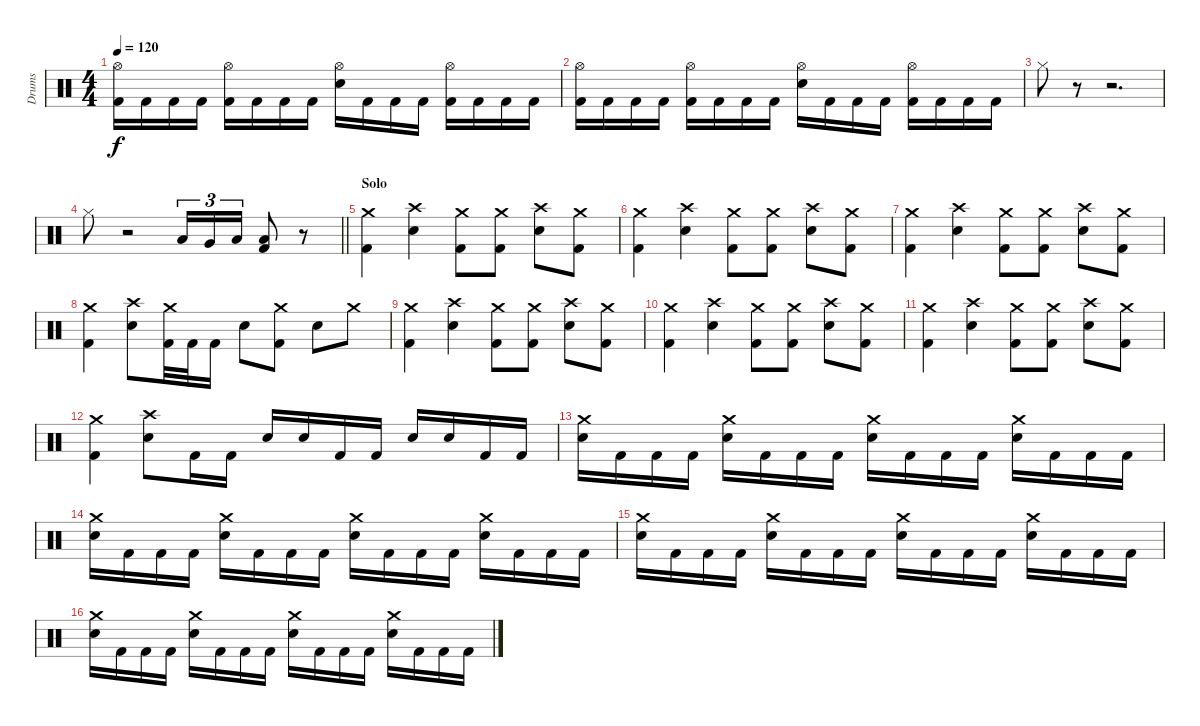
\track ("Drums" "Drums") {instrument percussion}
\staff {score}
\articulation defaults
\ts (4 4)
\tempo 120
\clef neutral
\ks c
("Hi-Hat (open)" "Kick (hit) 2").16{dy f} "Kick (hit) 2".16 "Kick (hit) 2".16 "Kick (hit) 2".16 ("Hi-Hat (open)" "Kick (hit) 2").16 "Kick (hit) 2".16 "Kick (hit) 2".16 "Kick (hit) 2".16 ("Hi-Hat (open)" "Snare (hit) 2").16 "Kick (hit) 2".16 "Kick (hit) 2".16 "Kick (hit) 2".16 ("Hi-Hat (open)" "Kick (hit) 2").16 "Kick (hit) 2".16 "Kick (hit) 2".16 "Kick (hit) 2".16 |
("Hi-Hat (open)" "Kick (hit) 2").16 "Kick (hit) 2".16 "Kick (hit) 2".16 "Kick (hit) 2".16 ("Hi-Hat (open)" "Kick (hit) 2").16 "Kick (hit) 2".16 "Kick (hit) 2".16 "Kick (hit) 2".16 ("Hi-Hat (open)" "Snare (hit) 2").16 "Kick (hit) 2".16 "Kick (hit) 2".16 "Kick (hit) 2".16 ("Hi-Hat (open)" "Kick (hit) 2").16 "Kick (hit) 2".16 "Kick (hit) 2".16 "Kick (hit) 2".16 |
"Hi-Hat (closed)".8 r.8 r.2{d} |
\barLineRight lightlight "Hi-Hat (closed)".8
r.2 "Low Tom (hit)".16{tu (3 2)} "Very Low Tom (hit)".16{tu (3 2)} "Low Floor Tom (hit)".16{tu (3 2)} ("Low Floor Tom (hit)" "Kick (hit) 2").8 r.8 |
\section ("" "Solo")
("Crash medium (hit)" "Kick (hit) 2").4 ("Crash high (hit)" "Snare (hit) 2").4 ("Crash medium (hit)" "Kick (hit) 2").8 ("Crash medium (hit)" "Kick (hit) 2").8 ("Crash high (hit)" "Snare (hit) 2").8 ("Crash medium (hit)" "Kick (hit) 2").8 |
("Crash medium (hit)" "Kick (hit) 2").4 ("Crash high (hit)" "Snare (hit) 2").4 ("Crash medium (hit)" "Kick (hit) 2").8 ("Crash medium (hit)" "Kick (hit) 2").8 ("Crash high (hit)" "Snare (hit) 2").8 ("Crash medium (hit)" "Kick (hit) 2").8 |
("Crash medium (hit)" "Kick (hit) 2").4 ("Crash high (hit)" "Snare (hit) 2").4 ("Crash medium (hit)" "Kick (hit) 2").8 ("Crash medium (hit)" "Kick (hit) 2").8 ("Crash high (hit)" "Snare (hit) 2").8 ("Crash medium (hit)" "Kick (hit) 2").8 |
("Crash medium (hit)" "Kick (hit) 2").4 ("Crash high (hit)" "Snare (hit) 2").8 ("Crash medium (hit)" "Kick (hit) 2").32 "Kick (hit) 2".32 "Kick (hit) 2".16 "Snare (hit) 2".8 ("Crash medium (hit)" "Kick (hit) 2").8 "Snare (hit) 2".8 "Crash medium (hit)".8 |
("Crash medium (hit)" "Kick (hit) 2").4 ("Crash high (hit)" "Snare (hit) 2").4 ("Crash medium (hit)" "Kick (hit) 2").8 ("Crash medium (hit)" "Kick (hit) 2").8 ("Crash high (hit)" "Snare (hit) 2").8 ("Crash medium (hit)" "Kick (hit) 2").8 |
("Crash medium (hit)" "Kick (hit) 2").4 ("Crash high (hit)" "Snare (hit) 2").4 ("Crash medium (hit)" "Kick (hit) 2").8 ("Crash medium (hit)" "Kick (hit) 2").8 ("Crash high (hit)" "Snare (hit) 2").8 ("Crash medium (hit)" "Kick (hit) 2").8 |
("Crash medium (hit)" "Kick (hit) 2").4 ("Crash high (hit)" "Snare (hit) 2").4 ("Crash medium (hit)" "Kick (hit) 2").8 ("Crash medium (hit)" "Kick (hit) 2").8 ("Crash high (hit)" "Snare (hit) 2").8 ("Crash medium (hit)" "Kick (hit) 2").8 |
("Crash medium (hit)" "Kick (hit) 2").4 ("Crash high (hit)" "Snare (hit) 2").8 "Kick (hit) 2".16 "Kick (hit) 2".16 "Snare (hit) 2".16 "Snare (hit) 2".16 "Kick (hit) 2".16 "Kick (hit) 2".16 "Snare (hit) 2".16 "Snare (hit) 2".16 "Kick (hit) 2".16 "Kick (hit) 2".16 |
("Crash medium (hit)" "Snare (hit) 2").16 "Kick (hit) 2".16 "Kick (hit) 2".16 "Kick (hit) 2".16 ("Crash medium (hit)" "Snare (hit) 2").16 "Kick (hit) 2".16 "Kick (hit) 2".16 "Kick (hit) 2".16 ("Crash medium (hit)" "Snare (hit) 2").16 "Kick (hit) 2".16 "Kick (hit) 2".16 "Kick (hit) 2".16 ("Crash medium (hit)" "Snare (hit) 2").16 "Kick (hit) 2".16 "Kick (hit) 2".16 "Kick (hit) 2".16 |
("Crash medium (hit)" "Snare (hit) 2").16 "Kick (hit) 2".16 "Kick (hit) 2".16 "Kick (hit) 2".16 ("Crash medium (hit)" "Snare (hit) 2").16 "Kick (hit) 2".16 "Kick (hit) 2".16 "Kick (hit) 2".16 ("Crash medium (hit)" "Snare (hit) 2").16 "Kick (hit) 2".16 "Kick (hit) 2".16 "Kick (hit) 2".16 ("Crash medium (hit)" "Snare (hit) 2").16 "Kick (hit) 2".16 "Kick (hit) 2".16 "Kick (hit) 2".16 |
("Crash medium (hit)" "Snare (hit) 2").16 "Kick (hit) 2".16 "Kick (hit) 2".16 "Kick (hit) 2".16 ("Crash medium (hit)" "Snare (hit) 2").16 "Kick (hit) 2".16 "Kick (hit) 2".16 "Kick (hit) 2".16 ("Crash medium (hit)" "Snare (hit) 2").16 "Kick (hit) 2".16 "Kick (hit) 2".16 "Kick (hit) 2".16 ("Crash medium (hit)" "Snare (hit) 2").16 "Kick (hit) 2".16 "Kick (hit) 2".16 "Kick (hit) 2".16 |
("Crash medium (hit)" "Snare (hit) 2").16 "Kick (hit) 2".16 "Kick (hit) 2".16 "Kick (hit) 2".16 ("Crash medium (hit)" "Snare (hit) 2").16 "Kick (hit) 2".16 "Kick (hit) 2".16 "Kick (hit) 2".16 ("Crash medium (hit)" "Snare (hit) 2").16 "Kick (hit) 2".16 "Kick (hit) 2".16 "Kick (hit) 2".16 ("Crash medium (hit)" "Snare (hit) 2").16 "Kick (hit) 2".16 "Kick (hit) 2".16 "Kick (hit) 2".16
